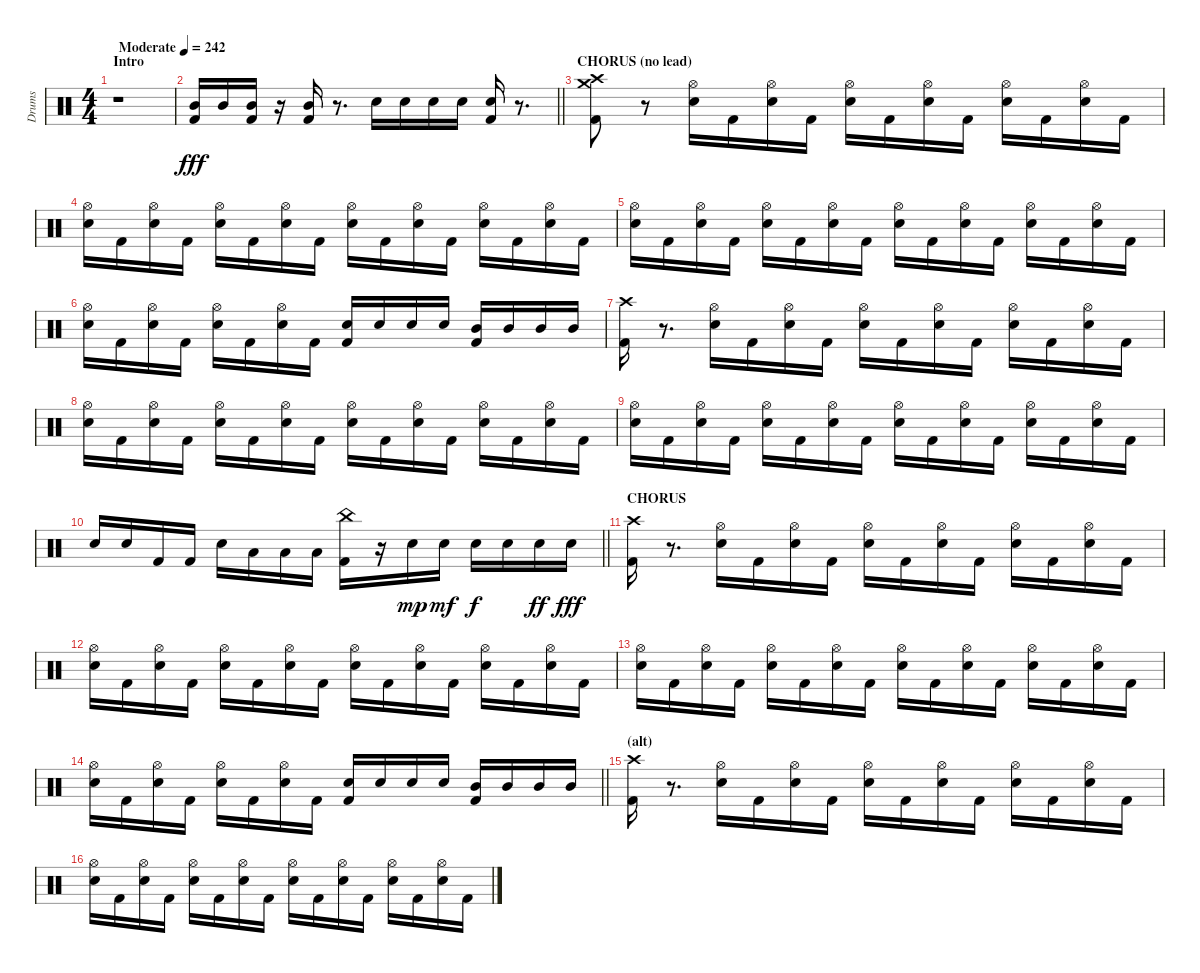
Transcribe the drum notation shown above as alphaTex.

\track ("Drums" "Drums") {instrument percussion}
\staff {score}
\articulation defaults
\ts (4 4)
\section ("" "Intro")
\tempo (242 "Moderate")
\clef neutral
\ks c
r.1{dy fff} |
\barLineRight lightlight
("Kick (hit) 2" "Mid Tom (hit)").16 "Mid Tom (hit)".16 ("Kick (hit) 2" "Mid Tom (hit)").16 r.16 ("Kick (hit) 2" "Mid Tom (hit)").16 r.8{d} "Snare (hit) 2".16 "Snare (hit) 2".16 "Snare (hit) 2".16 "Snare (hit) 2".16 ("Kick (hit) 2" "Snare (hit) 2").16 r.8{d} |
\section ("" "CHORUS (no lead)")
("Kick (hit) 2" "Crash medium (hit)" "Crash high (hit)").8 r.8 ("Snare (hit) 2" "Hi-Hat (open)").16 "Kick (hit) 2".16 ("Snare (hit) 2" "Hi-Hat (open)").16 "Kick (hit) 2".16 ("Snare (hit) 2" "Hi-Hat (open)").16 "Kick (hit) 2".16 ("Snare (hit) 2" "Hi-Hat (open)").16 "Kick (hit) 2".16 ("Snare (hit) 2" "Hi-Hat (open)").16 "Kick (hit) 2".16 ("Snare (hit) 2" "Hi-Hat (open)").16 "Kick (hit) 2".16 |
("Snare (hit) 2" "Hi-Hat (open)").16 "Kick (hit) 2".16 ("Snare (hit) 2" "Hi-Hat (open)").16 "Kick (hit) 2".16 ("Snare (hit) 2" "Hi-Hat (open)").16 "Kick (hit) 2".16 ("Snare (hit) 2" "Hi-Hat (open)").16 "Kick (hit) 2".16 ("Snare (hit) 2" "Hi-Hat (open)").16 "Kick (hit) 2".16 ("Snare (hit) 2" "Hi-Hat (open)").16 "Kick (hit) 2".16 ("Snare (hit) 2" "Hi-Hat (open)").16 "Kick (hit) 2".16 ("Snare (hit) 2" "Hi-Hat (open)").16 "Kick (hit) 2".16 |
("Snare (hit) 2" "Hi-Hat (open)").16 "Kick (hit) 2".16 ("Snare (hit) 2" "Hi-Hat (open)").16 "Kick (hit) 2".16 ("Snare (hit) 2" "Hi-Hat (open)").16 "Kick (hit) 2".16 ("Snare (hit) 2" "Hi-Hat (open)").16 "Kick (hit) 2".16 ("Snare (hit) 2" "Hi-Hat (open)").16 "Kick (hit) 2".16 ("Snare (hit) 2" "Hi-Hat (open)").16 "Kick (hit) 2".16 ("Snare (hit) 2" "Hi-Hat (open)").16 "Kick (hit) 2".16 ("Snare (hit) 2" "Hi-Hat (open)").16 "Kick (hit) 2".16 |
("Snare (hit) 2" "Hi-Hat (open)").16 "Kick (hit) 2".16 ("Snare (hit) 2" "Hi-Hat (open)").16 "Kick (hit) 2".16 ("Snare (hit) 2" "Hi-Hat (open)").16 "Kick (hit) 2".16 ("Snare (hit) 2" "Hi-Hat (open)").16 "Kick (hit) 2".16 ("Kick (hit) 2" "Snare (hit) 2").16 "Snare (hit) 2".16 "Snare (hit) 2".16 "Snare (hit) 2".16 ("Kick (hit) 2" "Mid Tom (hit)").16 "Mid Tom (hit)".16 "Mid Tom (hit)".16 "Mid Tom (hit)".16 |
("Kick (hit) 2" "Crash high (hit)").16 r.8{d} ("Snare (hit) 2" "Hi-Hat (open)").16 "Kick (hit) 2".16 ("Snare (hit) 2" "Hi-Hat (open)").16 "Kick (hit) 2".16 ("Snare (hit) 2" "Hi-Hat (open)").16 "Kick (hit) 2".16 ("Snare (hit) 2" "Hi-Hat (open)").16 "Kick (hit) 2".16 ("Snare (hit) 2" "Hi-Hat (open)").16 "Kick (hit) 2".16 ("Snare (hit) 2" "Hi-Hat (open)").16 "Kick (hit) 2".16 |
("Snare (hit) 2" "Hi-Hat (open)").16 "Kick (hit) 2".16 ("Snare (hit) 2" "Hi-Hat (open)").16 "Kick (hit) 2".16 ("Snare (hit) 2" "Hi-Hat (open)").16 "Kick (hit) 2".16 ("Snare (hit) 2" "Hi-Hat (open)").16 "Kick (hit) 2".16 ("Snare (hit) 2" "Hi-Hat (open)").16 "Kick (hit) 2".16 ("Snare (hit) 2" "Hi-Hat (open)").16 "Kick (hit) 2".16 ("Snare (hit) 2" "Hi-Hat (open)").16 "Kick (hit) 2".16 ("Snare (hit) 2" "Hi-Hat (open)").16 "Kick (hit) 2".16 |
("Snare (hit) 2" "Hi-Hat (open)").16 "Kick (hit) 2".16 ("Snare (hit) 2" "Hi-Hat (open)").16 "Kick (hit) 2".16 ("Snare (hit) 2" "Hi-Hat (open)").16 "Kick (hit) 2".16 ("Snare (hit) 2" "Hi-Hat (open)").16 "Kick (hit) 2".16 ("Snare (hit) 2" "Hi-Hat (open)").16 "Kick (hit) 2".16 ("Snare (hit) 2" "Hi-Hat (open)").16 "Kick (hit) 2".16 ("Snare (hit) 2" "Hi-Hat (open)").16 "Kick (hit) 2".16 ("Snare (hit) 2" "Hi-Hat (open)").16 "Kick (hit) 2".16 |
\barLineRight lightlight "Snare (hit) 2".16 "Snare (hit) 2".16 "Kick (hit) 2".16 "Kick (hit) 2".16 "Snare (hit) 2".16 "Low Tom (hit)".16 "Low Tom (hit)".16 "Low Tom (hit)".16
("Kick (hit) 2" "China (hit)").16 r.16 "Snare (hit) 2".16{dy mp} "Snare (hit) 2".16{dy mf} "Snare (hit) 2".16{dy f} "Snare (hit) 2".16 "Snare (hit) 2".16{dy ff} "Snare (hit) 2".16{dy fff} |
\section ("" "CHORUS")
("Kick (hit) 2" "Crash high (hit)").16 r.8{d} ("Snare (hit) 2" "Hi-Hat (open)").16 "Kick (hit) 2".16 ("Snare (hit) 2" "Hi-Hat (open)").16 "Kick (hit) 2".16 ("Snare (hit) 2" "Hi-Hat (open)").16 "Kick (hit) 2".16 ("Snare (hit) 2" "Hi-Hat (open)").16 "Kick (hit) 2".16 ("Snare (hit) 2" "Hi-Hat (open)").16 "Kick (hit) 2".16 ("Snare (hit) 2" "Hi-Hat (open)").16 "Kick (hit) 2".16 |
("Snare (hit) 2" "Hi-Hat (open)").16 "Kick (hit) 2".16 ("Snare (hit) 2" "Hi-Hat (open)").16 "Kick (hit) 2".16 ("Snare (hit) 2" "Hi-Hat (open)").16 "Kick (hit) 2".16 ("Snare (hit) 2" "Hi-Hat (open)").16 "Kick (hit) 2".16 ("Snare (hit) 2" "Hi-Hat (open)").16 "Kick (hit) 2".16 ("Snare (hit) 2" "Hi-Hat (open)").16 "Kick (hit) 2".16 ("Snare (hit) 2" "Hi-Hat (open)").16 "Kick (hit) 2".16 ("Snare (hit) 2" "Hi-Hat (open)").16 "Kick (hit) 2".16 |
("Snare (hit) 2" "Hi-Hat (open)").16 "Kick (hit) 2".16 ("Snare (hit) 2" "Hi-Hat (open)").16 "Kick (hit) 2".16 ("Snare (hit) 2" "Hi-Hat (open)").16 "Kick (hit) 2".16 ("Snare (hit) 2" "Hi-Hat (open)").16 "Kick (hit) 2".16 ("Snare (hit) 2" "Hi-Hat (open)").16 "Kick (hit) 2".16 ("Snare (hit) 2" "Hi-Hat (open)").16 "Kick (hit) 2".16 ("Snare (hit) 2" "Hi-Hat (open)").16 "Kick (hit) 2".16 ("Snare (hit) 2" "Hi-Hat (open)").16 "Kick (hit) 2".16 |
\barLineRight lightlight
("Snare (hit) 2" "Hi-Hat (open)").16 "Kick (hit) 2".16 ("Snare (hit) 2" "Hi-Hat (open)").16 "Kick (hit) 2".16 ("Snare (hit) 2" "Hi-Hat (open)").16 "Kick (hit) 2".16 ("Snare (hit) 2" "Hi-Hat (open)").16 "Kick (hit) 2".16 ("Kick (hit) 2" "Snare (hit) 2").16 "Snare (hit) 2".16 "Snare (hit) 2".16 "Snare (hit) 2".16 ("Kick (hit) 2" "Mid Tom (hit)").16 "Mid Tom (hit)".16 "Mid Tom (hit)".16 "Mid Tom (hit)".16 |
\section ("" "(alt)")
("Kick (hit) 2" "Crash high (hit)").16 r.8{d} ("Snare (hit) 2" "Hi-Hat (open)").16 "Kick (hit) 2".16 ("Snare (hit) 2" "Hi-Hat (open)").16 "Kick (hit) 2".16 ("Snare (hit) 2" "Hi-Hat (open)").16 "Kick (hit) 2".16 ("Snare (hit) 2" "Hi-Hat (open)").16 "Kick (hit) 2".16 ("Snare (hit) 2" "Hi-Hat (open)").16 "Kick (hit) 2".16 ("Snare (hit) 2" "Hi-Hat (open)").16 "Kick (hit) 2".16 |
("Snare (hit) 2" "Hi-Hat (open)").16 "Kick (hit) 2".16 ("Snare (hit) 2" "Hi-Hat (open)").16 "Kick (hit) 2".16 ("Snare (hit) 2" "Hi-Hat (open)").16 "Kick (hit) 2".16 ("Snare (hit) 2" "Hi-Hat (open)").16 "Kick (hit) 2".16 ("Snare (hit) 2" "Hi-Hat (open)").16 "Kick (hit) 2".16 ("Snare (hit) 2" "Hi-Hat (open)").16 "Kick (hit) 2".16 ("Snare (hit) 2" "Hi-Hat (open)").16 "Kick (hit) 2".16 ("Snare (hit) 2" "Hi-Hat (open)").16 "Kick (hit) 2".16
